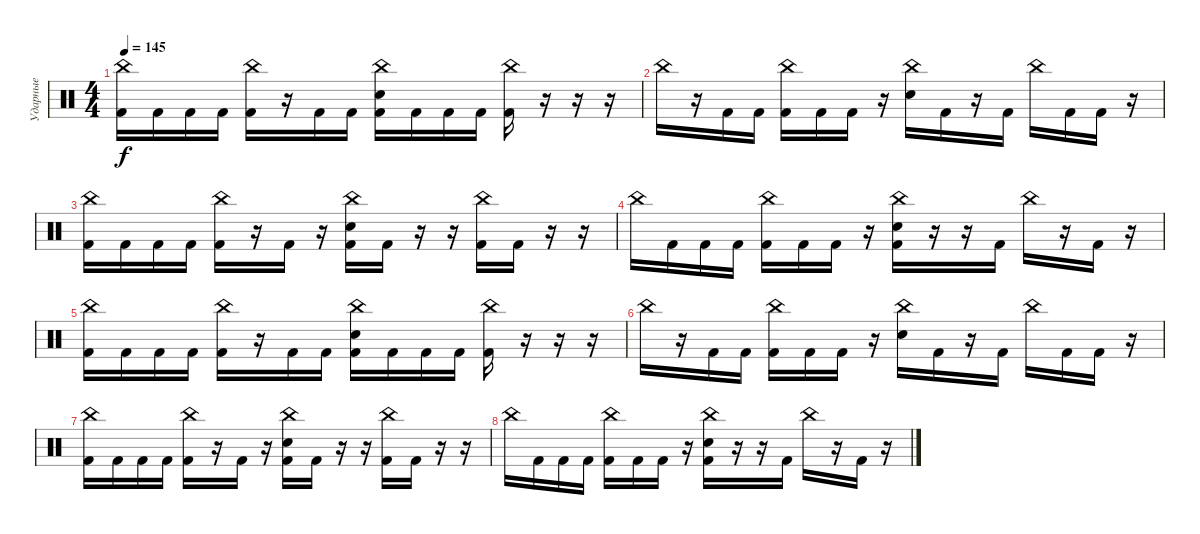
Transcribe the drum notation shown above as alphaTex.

\track ("Ударные" "Ударные") {instrument percussion}
\staff {score}
\articulation defaults
\ts (4 4)
\tempo 145
\clef neutral
\ks c
("China (hit)" "Kick (hit) 2").16{dy f} "Kick (hit) 2".16 "Kick (hit) 2".16 "Kick (hit) 2".16 ("China (hit)" "Kick (hit) 2").16 r.16 "Kick (hit) 2".16 "Kick (hit) 2".16 ("China (hit)" "Electric Snare (hit)" "Kick (hit) 2").16 "Kick (hit) 2".16 "Kick (hit) 2".16 "Kick (hit) 2".16 ("China (hit)" "Kick (hit) 2").16 r.16 r.16 r.16 |
"China (hit)".16 r.16 "Kick (hit) 2".16 "Kick (hit) 2".16 ("China (hit)" "Kick (hit) 2").16 "Kick (hit) 2".16 "Kick (hit) 2".16 r.16 ("China (hit)" "Electric Snare (hit)").16 "Kick (hit) 2".16 r.16 "Kick (hit) 2".16 "China (hit)".16 "Kick (hit) 2".16 "Kick (hit) 2".16 r.16 |
("China (hit)" "Kick (hit) 2").16 "Kick (hit) 2".16 "Kick (hit) 2".16 "Kick (hit) 2".16 ("China (hit)" "Kick (hit) 2").16 r.16 "Kick (hit) 2".16 r.16 ("China (hit)" "Electric Snare (hit)" "Kick (hit) 2").16 "Kick (hit) 2".16 r.16 r.16 ("China (hit)" "Kick (hit) 2").16 "Kick (hit) 2".16 r.16 r.16 |
"China (hit)".16 "Kick (hit) 2".16 "Kick (hit) 2".16 "Kick (hit) 2".16 ("China (hit)" "Kick (hit) 2").16 "Kick (hit) 2".16 "Kick (hit) 2".16 r.16 ("China (hit)" "Electric Snare (hit)" "Kick (hit) 2").16 r.16 r.16 "Kick (hit) 2".16 "China (hit)".16 r.16 "Kick (hit) 2".16 r.16 |
("China (hit)" "Kick (hit) 2").16 "Kick (hit) 2".16 "Kick (hit) 2".16 "Kick (hit) 2".16 ("China (hit)" "Kick (hit) 2").16 r.16 "Kick (hit) 2".16 "Kick (hit) 2".16 ("China (hit)" "Electric Snare (hit)" "Kick (hit) 2").16 "Kick (hit) 2".16 "Kick (hit) 2".16 "Kick (hit) 2".16 ("China (hit)" "Kick (hit) 2").16 r.16 r.16 r.16 |
"China (hit)".16 r.16 "Kick (hit) 2".16 "Kick (hit) 2".16 ("China (hit)" "Kick (hit) 2").16 "Kick (hit) 2".16 "Kick (hit) 2".16 r.16 ("China (hit)" "Electric Snare (hit)").16 "Kick (hit) 2".16 r.16 "Kick (hit) 2".16 "China (hit)".16 "Kick (hit) 2".16 "Kick (hit) 2".16 r.16 |
("China (hit)" "Kick (hit) 2").16 "Kick (hit) 2".16 "Kick (hit) 2".16 "Kick (hit) 2".16 ("China (hit)" "Kick (hit) 2").16 r.16 "Kick (hit) 2".16 r.16 ("China (hit)" "Electric Snare (hit)" "Kick (hit) 2").16 "Kick (hit) 2".16 r.16 r.16 ("China (hit)" "Kick (hit) 2").16 "Kick (hit) 2".16 r.16 r.16 |
"China (hit)".16 "Kick (hit) 2".16 "Kick (hit) 2".16 "Kick (hit) 2".16 ("China (hit)" "Kick (hit) 2").16 "Kick (hit) 2".16 "Kick (hit) 2".16 r.16 ("China (hit)" "Electric Snare (hit)" "Kick (hit) 2").16 r.16 r.16 "Kick (hit) 2".16 "China (hit)".16 r.16 "Kick (hit) 2".16 r.16
